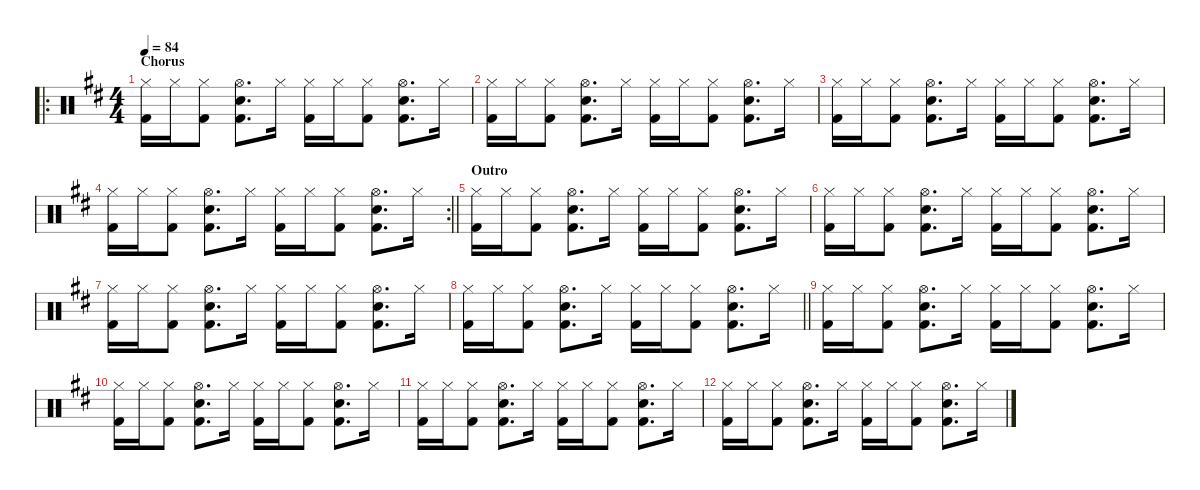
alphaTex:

\defaultSystemsLayout 4
\hideDynamics
\bracketExtendMode nobrackets
\singleTrackTrackNamePolicy hidden
\multiTrackTrackNamePolicy hidden
\firstSystemTrackNameMode fullname
\firstSystemTrackNameOrientation horizontal
\otherSystemsTrackNameOrientation horizontal
\track ("Drums" "drm.") {defaultSystemsLayout 4 instrument percussion}
\staff {score}
\articulation defaults
\ro
\ts (4 4)
\section ("" "Chorus")
\tempo 84
\clef neutral
\ks d
("Kick (hit) 2"{acc forcenatural} "Hi-Hat (closed)"{acc forcenatural}).16{dy f beam Down} "Hi-Hat (closed)"{acc forcenatural}.16{beam Down} ("Kick (hit) 2"{acc forcenatural} "Hi-Hat (closed)"{acc forcenatural}).8{beam Down} ("Kick (hit) 2"{acc forcenatural} "Hi-Hat (open)"{acc forcenatural} "Snare (hit) 2"{acc forcenatural}).8{d beam Down} "Hi-Hat (closed)"{acc forcenatural}.16{beam Down} ("Kick (hit) 2"{acc forcenatural} "Hi-Hat (closed)"{acc forcenatural}).16{beam Down} "Hi-Hat (closed)"{acc forcenatural}.16{beam Down} ("Kick (hit) 2"{acc forcenatural} "Hi-Hat (closed)"{acc forcenatural}).8{beam Down} ("Kick (hit) 2"{acc forcenatural} "Hi-Hat (open)"{acc forcenatural} "Snare (hit) 2"{acc forcenatural}).8{d beam Down} "Hi-Hat (closed)"{acc forcenatural}.16{beam Down} |
("Kick (hit) 2"{acc forcenatural} "Hi-Hat (closed)"{acc forcenatural}).16{beam Down} "Hi-Hat (closed)"{acc forcenatural}.16{beam Down} ("Kick (hit) 2"{acc forcenatural} "Hi-Hat (closed)"{acc forcenatural}).8{beam Down} ("Kick (hit) 2"{acc forcenatural} "Hi-Hat (open)"{acc forcenatural} "Snare (hit) 2"{acc forcenatural}).8{d beam Down} "Hi-Hat (closed)"{acc forcenatural}.16{beam Down} ("Kick (hit) 2"{acc forcenatural} "Hi-Hat (closed)"{acc forcenatural}).16{beam Down} "Hi-Hat (closed)"{acc forcenatural}.16{beam Down} ("Kick (hit) 2"{acc forcenatural} "Hi-Hat (closed)"{acc forcenatural}).8{beam Down} ("Kick (hit) 2"{acc forcenatural} "Hi-Hat (open)"{acc forcenatural} "Snare (hit) 2"{acc forcenatural}).8{d beam Down} "Hi-Hat (closed)"{acc forcenatural}.16{beam Down} |
("Kick (hit) 2"{acc forcenatural} "Hi-Hat (closed)"{acc forcenatural}).16{beam Down} "Hi-Hat (closed)"{acc forcenatural}.16{beam Down} ("Kick (hit) 2"{acc forcenatural} "Hi-Hat (closed)"{acc forcenatural}).8{beam Down} ("Kick (hit) 2"{acc forcenatural} "Hi-Hat (open)"{acc forcenatural} "Snare (hit) 2"{acc forcenatural}).8{d beam Down} "Hi-Hat (closed)"{acc forcenatural}.16{beam Down} ("Kick (hit) 2"{acc forcenatural} "Hi-Hat (closed)"{acc forcenatural}).16{beam Down} "Hi-Hat (closed)"{acc forcenatural}.16{beam Down} ("Kick (hit) 2"{acc forcenatural} "Hi-Hat (closed)"{acc forcenatural}).8{beam Down} ("Kick (hit) 2"{acc forcenatural} "Hi-Hat (open)"{acc forcenatural} "Snare (hit) 2"{acc forcenatural}).8{d beam Down} "Hi-Hat (closed)"{acc forcenatural}.16{beam Down} |
\rc 2
\barLineRight lightlight
("Kick (hit) 2"{acc forcenatural} "Hi-Hat (closed)"{acc forcenatural}).16{beam Down} "Hi-Hat (closed)"{acc forcenatural}.16{beam Down} ("Kick (hit) 2"{acc forcenatural} "Hi-Hat (closed)"{acc forcenatural}).8{beam Down} ("Kick (hit) 2"{acc forcenatural} "Hi-Hat (open)"{acc forcenatural} "Snare (hit) 2"{acc forcenatural}).8{d beam Down} "Hi-Hat (closed)"{acc forcenatural}.16{beam Down} ("Kick (hit) 2"{acc forcenatural} "Hi-Hat (closed)"{acc forcenatural}).16{beam Down} "Hi-Hat (closed)"{acc forcenatural}.16{beam Down} ("Kick (hit) 2"{acc forcenatural} "Hi-Hat (closed)"{acc forcenatural}).8{beam Down} ("Kick (hit) 2"{acc forcenatural} "Hi-Hat (open)"{acc forcenatural} "Snare (hit) 2"{acc forcenatural}).8{d beam Down} "Hi-Hat (closed)"{acc forcenatural}.16{beam Down} |
\section ("" "Outro")
("Kick (hit) 2"{acc forcenatural} "Hi-Hat (closed)"{acc forcenatural}).16{beam Down} "Hi-Hat (closed)"{acc forcenatural}.16{beam Down} ("Kick (hit) 2"{acc forcenatural} "Hi-Hat (closed)"{acc forcenatural}).8{beam Down} ("Kick (hit) 2"{acc forcenatural} "Hi-Hat (open)"{acc forcenatural} "Snare (hit) 2"{acc forcenatural}).8{d beam Down} "Hi-Hat (closed)"{acc forcenatural}.16{beam Down} ("Kick (hit) 2"{acc forcenatural} "Hi-Hat (closed)"{acc forcenatural}).16{beam Down} "Hi-Hat (closed)"{acc forcenatural}.16{beam Down} ("Kick (hit) 2"{acc forcenatural} "Hi-Hat (closed)"{acc forcenatural}).8{beam Down} ("Kick (hit) 2"{acc forcenatural} "Hi-Hat (open)"{acc forcenatural} "Snare (hit) 2"{acc forcenatural}).8{d beam Down} "Hi-Hat (closed)"{acc forcenatural}.16{beam Down} |
("Kick (hit) 2"{acc forcenatural} "Hi-Hat (closed)"{acc forcenatural}).16{beam Down} "Hi-Hat (closed)"{acc forcenatural}.16{beam Down} ("Kick (hit) 2"{acc forcenatural} "Hi-Hat (closed)"{acc forcenatural}).8{beam Down} ("Kick (hit) 2"{acc forcenatural} "Hi-Hat (open)"{acc forcenatural} "Snare (hit) 2"{acc forcenatural}).8{d beam Down} "Hi-Hat (closed)"{acc forcenatural}.16{beam Down} ("Kick (hit) 2"{acc forcenatural} "Hi-Hat (closed)"{acc forcenatural}).16{beam Down} "Hi-Hat (closed)"{acc forcenatural}.16{beam Down} ("Kick (hit) 2"{acc forcenatural} "Hi-Hat (closed)"{acc forcenatural}).8{beam Down} ("Kick (hit) 2"{acc forcenatural} "Hi-Hat (open)"{acc forcenatural} "Snare (hit) 2"{acc forcenatural}).8{d beam Down} "Hi-Hat (closed)"{acc forcenatural}.16{beam Down} |
("Kick (hit) 2"{acc forcenatural} "Hi-Hat (closed)"{acc forcenatural}).16{beam Down} "Hi-Hat (closed)"{acc forcenatural}.16{beam Down} ("Kick (hit) 2"{acc forcenatural} "Hi-Hat (closed)"{acc forcenatural}).8{beam Down} ("Kick (hit) 2"{acc forcenatural} "Hi-Hat (open)"{acc forcenatural} "Snare (hit) 2"{acc forcenatural}).8{d beam Down} "Hi-Hat (closed)"{acc forcenatural}.16{beam Down} ("Kick (hit) 2"{acc forcenatural} "Hi-Hat (closed)"{acc forcenatural}).16{beam Down} "Hi-Hat (closed)"{acc forcenatural}.16{beam Down} ("Kick (hit) 2"{acc forcenatural} "Hi-Hat (closed)"{acc forcenatural}).8{beam Down} ("Kick (hit) 2"{acc forcenatural} "Hi-Hat (open)"{acc forcenatural} "Snare (hit) 2"{acc forcenatural}).8{d beam Down} "Hi-Hat (closed)"{acc forcenatural}.16{beam Down} |
\barLineRight lightlight
("Kick (hit) 2"{acc forcenatural} "Hi-Hat (closed)"{acc forcenatural}).16{beam Down} "Hi-Hat (closed)"{acc forcenatural}.16{beam Down} ("Kick (hit) 2"{acc forcenatural} "Hi-Hat (closed)"{acc forcenatural}).8{beam Down} ("Kick (hit) 2"{acc forcenatural} "Hi-Hat (open)"{acc forcenatural} "Snare (hit) 2"{acc forcenatural}).8{d beam Down} "Hi-Hat (closed)"{acc forcenatural}.16{beam Down} ("Kick (hit) 2"{acc forcenatural} "Hi-Hat (closed)"{acc forcenatural}).16{beam Down} "Hi-Hat (closed)"{acc forcenatural}.16{beam Down} ("Kick (hit) 2"{acc forcenatural} "Hi-Hat (closed)"{acc forcenatural}).8{beam Down} ("Kick (hit) 2"{acc forcenatural} "Hi-Hat (open)"{acc forcenatural} "Snare (hit) 2"{acc forcenatural}).8{d beam Down} "Hi-Hat (closed)"{acc forcenatural}.16{beam Down} |
("Kick (hit) 2"{acc forcenatural} "Hi-Hat (closed)"{acc forcenatural}).16{beam Down} "Hi-Hat (closed)"{acc forcenatural}.16{beam Down} ("Kick (hit) 2"{acc forcenatural} "Hi-Hat (closed)"{acc forcenatural}).8{beam Down} ("Kick (hit) 2"{acc forcenatural} "Hi-Hat (open)"{acc forcenatural} "Snare (hit) 2"{acc forcenatural}).8{d beam Down} "Hi-Hat (closed)"{acc forcenatural}.16{beam Down} ("Kick (hit) 2"{acc forcenatural} "Hi-Hat (closed)"{acc forcenatural}).16{beam Down} "Hi-Hat (closed)"{acc forcenatural}.16{beam Down} ("Kick (hit) 2"{acc forcenatural} "Hi-Hat (closed)"{acc forcenatural}).8{beam Down} ("Kick (hit) 2"{acc forcenatural} "Hi-Hat (open)"{acc forcenatural} "Snare (hit) 2"{acc forcenatural}).8{d beam Down} "Hi-Hat (closed)"{acc forcenatural}.16{beam Down} |
("Kick (hit) 2"{acc forcenatural} "Hi-Hat (closed)"{acc forcenatural}).16{beam Down} "Hi-Hat (closed)"{acc forcenatural}.16{beam Down} ("Kick (hit) 2"{acc forcenatural} "Hi-Hat (closed)"{acc forcenatural}).8{beam Down} ("Kick (hit) 2"{acc forcenatural} "Hi-Hat (open)"{acc forcenatural} "Snare (hit) 2"{acc forcenatural}).8{d beam Down} "Hi-Hat (closed)"{acc forcenatural}.16{beam Down} ("Kick (hit) 2"{acc forcenatural} "Hi-Hat (closed)"{acc forcenatural}).16{beam Down} "Hi-Hat (closed)"{acc forcenatural}.16{beam Down} ("Kick (hit) 2"{acc forcenatural} "Hi-Hat (closed)"{acc forcenatural}).8{beam Down} ("Kick (hit) 2"{acc forcenatural} "Hi-Hat (open)"{acc forcenatural} "Snare (hit) 2"{acc forcenatural}).8{d beam Down} "Hi-Hat (closed)"{acc forcenatural}.16{beam Down} |
("Kick (hit) 2"{acc forcenatural} "Hi-Hat (closed)"{acc forcenatural}).16{beam Down} "Hi-Hat (closed)"{acc forcenatural}.16{beam Down} ("Kick (hit) 2"{acc forcenatural} "Hi-Hat (closed)"{acc forcenatural}).8{beam Down} ("Kick (hit) 2"{acc forcenatural} "Hi-Hat (open)"{acc forcenatural} "Snare (hit) 2"{acc forcenatural}).8{d beam Down} "Hi-Hat (closed)"{acc forcenatural}.16{beam Down} ("Kick (hit) 2"{acc forcenatural} "Hi-Hat (closed)"{acc forcenatural}).16{beam Down} "Hi-Hat (closed)"{acc forcenatural}.16{beam Down} ("Kick (hit) 2"{acc forcenatural} "Hi-Hat (closed)"{acc forcenatural}).8{beam Down} ("Kick (hit) 2"{acc forcenatural} "Hi-Hat (open)"{acc forcenatural} "Snare (hit) 2"{acc forcenatural}).8{d beam Down} "Hi-Hat (closed)"{acc forcenatural}.16{beam Down} |
("Kick (hit) 2"{acc forcenatural} "Hi-Hat (closed)"{acc forcenatural}).16{beam Down} "Hi-Hat (closed)"{acc forcenatural}.16{beam Down} ("Kick (hit) 2"{acc forcenatural} "Hi-Hat (closed)"{acc forcenatural}).8{beam Down} ("Kick (hit) 2"{acc forcenatural} "Hi-Hat (open)"{acc forcenatural} "Snare (hit) 2"{acc forcenatural}).8{d beam Down} "Hi-Hat (closed)"{acc forcenatural}.16{beam Down} ("Kick (hit) 2"{acc forcenatural} "Hi-Hat (closed)"{acc forcenatural}).16{beam Down} "Hi-Hat (closed)"{acc forcenatural}.16{beam Down} ("Kick (hit) 2"{acc forcenatural} "Hi-Hat (closed)"{acc forcenatural}).8{beam Down} ("Kick (hit) 2"{acc forcenatural} "Hi-Hat (open)"{acc forcenatural} "Snare (hit) 2"{acc forcenatural}).8{d beam Down} "Hi-Hat (closed)"{acc forcenatural}.16{beam Down}
